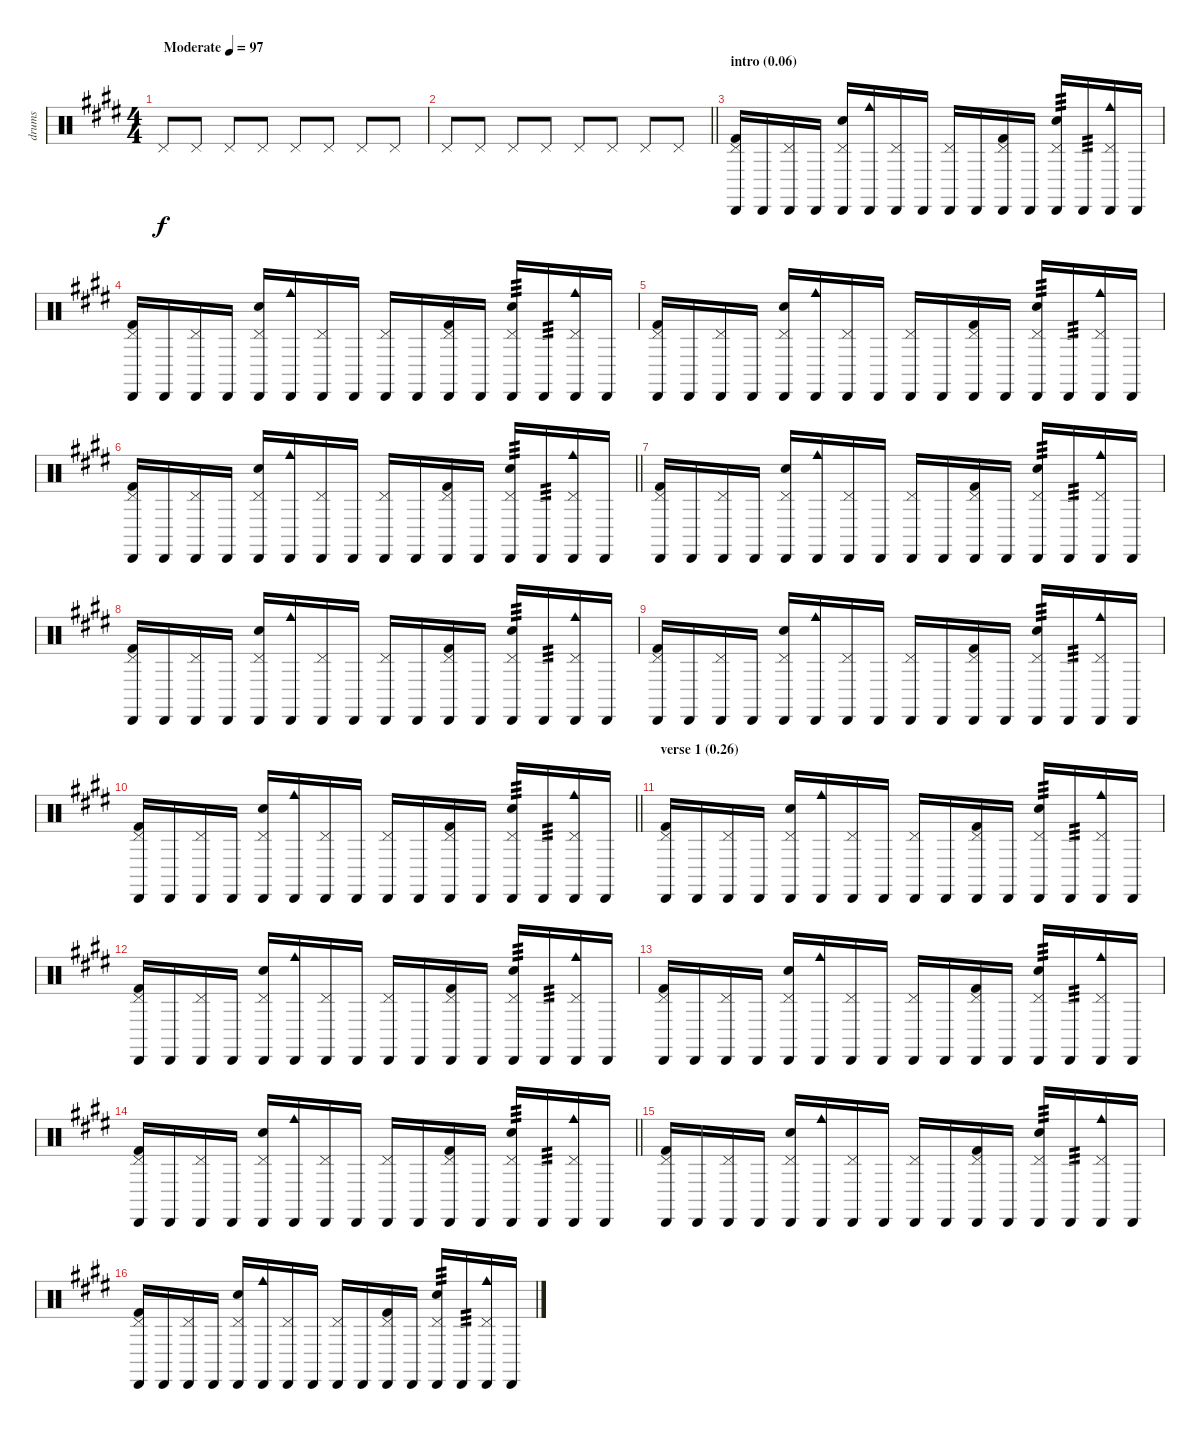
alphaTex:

\track ("drums" "drums") {instrument percussion}
\staff {score}
\articulation defaults
\ts (4 4)
\tempo (97 "Moderate")
\clef neutral
\ks e "Pedal Hi-Hat (hit)".8{dy f} "Pedal Hi-Hat (hit)".8 "Pedal Hi-Hat (hit)".8 "Pedal Hi-Hat (hit)".8 "Pedal Hi-Hat (hit)".8 "Pedal Hi-Hat (hit)".8 "Pedal Hi-Hat (hit)".8 "Pedal Hi-Hat (hit)".8
|
\barLineRight lightlight "Pedal Hi-Hat (hit)".8 "Pedal Hi-Hat (hit)".8 "Pedal Hi-Hat (hit)".8 "Pedal Hi-Hat (hit)".8 "Pedal Hi-Hat (hit)".8 "Pedal Hi-Hat (hit)".8 "Pedal Hi-Hat (hit)".8 "Pedal Hi-Hat (hit)".8
|
\section ("" "intro (0.06)")
("Pedal Hi-Hat (hit)" "Cabasa (hit)" "Kick (hit) 2").16 "Cabasa (hit)".16 ("Pedal Hi-Hat (hit)" "Cabasa (hit)").16 "Cabasa (hit)".16 ("Pedal Hi-Hat (hit)" "Cabasa (hit)" "Electric Snare (hit)").16 ("Cabasa (hit)" "Cowbell medium (hit)").16 ("Pedal Hi-Hat (hit)" "Cabasa (hit)").16 "Cabasa (hit)".16 ("Pedal Hi-Hat (hit)" "Cabasa (hit)").16 "Cabasa (hit)".16 ("Pedal Hi-Hat (hit)" "Cabasa (hit)" "Kick (hit) 2").16 "Cabasa (hit)".16 ("Pedal Hi-Hat (hit)" "Cabasa (hit)" "Electric Snare (hit)").16{tp 3} "Cabasa (hit)".16{tp 3} ("Pedal Hi-Hat (hit)" "Cabasa (hit)" "Cowbell medium (hit)").16 "Cabasa (hit)".16 |
("Pedal Hi-Hat (hit)" "Cabasa (hit)" "Kick (hit) 2").16 "Cabasa (hit)".16 ("Pedal Hi-Hat (hit)" "Cabasa (hit)").16 "Cabasa (hit)".16 ("Pedal Hi-Hat (hit)" "Cabasa (hit)" "Electric Snare (hit)").16 ("Cabasa (hit)" "Cowbell medium (hit)").16 ("Pedal Hi-Hat (hit)" "Cabasa (hit)").16 "Cabasa (hit)".16 ("Pedal Hi-Hat (hit)" "Cabasa (hit)").16 "Cabasa (hit)".16 ("Pedal Hi-Hat (hit)" "Cabasa (hit)" "Kick (hit) 2").16 "Cabasa (hit)".16 ("Pedal Hi-Hat (hit)" "Cabasa (hit)" "Electric Snare (hit)").16{tp 3} "Cabasa (hit)".16{tp 3} ("Pedal Hi-Hat (hit)" "Cabasa (hit)" "Cowbell medium (hit)").16 "Cabasa (hit)".16 |
("Pedal Hi-Hat (hit)" "Cabasa (hit)" "Kick (hit) 2").16 "Cabasa (hit)".16 ("Pedal Hi-Hat (hit)" "Cabasa (hit)").16 "Cabasa (hit)".16 ("Pedal Hi-Hat (hit)" "Cabasa (hit)" "Electric Snare (hit)").16 ("Cabasa (hit)" "Cowbell medium (hit)").16 ("Pedal Hi-Hat (hit)" "Cabasa (hit)").16 "Cabasa (hit)".16 ("Pedal Hi-Hat (hit)" "Cabasa (hit)").16 "Cabasa (hit)".16 ("Pedal Hi-Hat (hit)" "Cabasa (hit)" "Kick (hit) 2").16 "Cabasa (hit)".16 ("Pedal Hi-Hat (hit)" "Cabasa (hit)" "Electric Snare (hit)").16{tp 3} "Cabasa (hit)".16{tp 3} ("Pedal Hi-Hat (hit)" "Cabasa (hit)" "Cowbell medium (hit)").16 "Cabasa (hit)".16 |
\barLineRight lightlight
("Pedal Hi-Hat (hit)" "Cabasa (hit)" "Kick (hit) 2").16 "Cabasa (hit)".16 ("Pedal Hi-Hat (hit)" "Cabasa (hit)").16 "Cabasa (hit)".16 ("Pedal Hi-Hat (hit)" "Cabasa (hit)" "Electric Snare (hit)").16 ("Cabasa (hit)" "Cowbell medium (hit)").16 ("Pedal Hi-Hat (hit)" "Cabasa (hit)").16 "Cabasa (hit)".16 ("Pedal Hi-Hat (hit)" "Cabasa (hit)").16 "Cabasa (hit)".16 ("Pedal Hi-Hat (hit)" "Cabasa (hit)" "Kick (hit) 2").16 "Cabasa (hit)".16 ("Pedal Hi-Hat (hit)" "Cabasa (hit)" "Electric Snare (hit)").16{tp 3} "Cabasa (hit)".16{tp 3} ("Pedal Hi-Hat (hit)" "Cabasa (hit)" "Cowbell medium (hit)").16 "Cabasa (hit)".16 |
("Pedal Hi-Hat (hit)" "Cabasa (hit)" "Kick (hit) 2").16 "Cabasa (hit)".16 ("Pedal Hi-Hat (hit)" "Cabasa (hit)").16 "Cabasa (hit)".16 ("Pedal Hi-Hat (hit)" "Cabasa (hit)" "Electric Snare (hit)").16 ("Cabasa (hit)" "Cowbell medium (hit)").16 ("Pedal Hi-Hat (hit)" "Cabasa (hit)").16 "Cabasa (hit)".16 ("Pedal Hi-Hat (hit)" "Cabasa (hit)").16 "Cabasa (hit)".16 ("Pedal Hi-Hat (hit)" "Cabasa (hit)" "Kick (hit) 2").16 "Cabasa (hit)".16 ("Pedal Hi-Hat (hit)" "Cabasa (hit)" "Electric Snare (hit)").16{tp 3} "Cabasa (hit)".16{tp 3} ("Pedal Hi-Hat (hit)" "Cabasa (hit)" "Cowbell medium (hit)").16 "Cabasa (hit)".16 |
("Pedal Hi-Hat (hit)" "Cabasa (hit)" "Kick (hit) 2").16 "Cabasa (hit)".16 ("Pedal Hi-Hat (hit)" "Cabasa (hit)").16 "Cabasa (hit)".16 ("Pedal Hi-Hat (hit)" "Cabasa (hit)" "Electric Snare (hit)").16 ("Cabasa (hit)" "Cowbell medium (hit)").16 ("Pedal Hi-Hat (hit)" "Cabasa (hit)").16 "Cabasa (hit)".16 ("Pedal Hi-Hat (hit)" "Cabasa (hit)").16 "Cabasa (hit)".16 ("Pedal Hi-Hat (hit)" "Cabasa (hit)" "Kick (hit) 2").16 "Cabasa (hit)".16 ("Pedal Hi-Hat (hit)" "Cabasa (hit)" "Electric Snare (hit)").16{tp 3} "Cabasa (hit)".16{tp 3} ("Pedal Hi-Hat (hit)" "Cabasa (hit)" "Cowbell medium (hit)").16 "Cabasa (hit)".16 |
("Pedal Hi-Hat (hit)" "Cabasa (hit)" "Kick (hit) 2").16 "Cabasa (hit)".16 ("Pedal Hi-Hat (hit)" "Cabasa (hit)").16 "Cabasa (hit)".16 ("Pedal Hi-Hat (hit)" "Cabasa (hit)" "Electric Snare (hit)").16 ("Cabasa (hit)" "Cowbell medium (hit)").16 ("Pedal Hi-Hat (hit)" "Cabasa (hit)").16 "Cabasa (hit)".16 ("Pedal Hi-Hat (hit)" "Cabasa (hit)").16 "Cabasa (hit)".16 ("Pedal Hi-Hat (hit)" "Cabasa (hit)" "Kick (hit) 2").16 "Cabasa (hit)".16 ("Pedal Hi-Hat (hit)" "Cabasa (hit)" "Electric Snare (hit)").16{tp 3} "Cabasa (hit)".16{tp 3} ("Pedal Hi-Hat (hit)" "Cabasa (hit)" "Cowbell medium (hit)").16 "Cabasa (hit)".16 |
\barLineRight lightlight
("Pedal Hi-Hat (hit)" "Cabasa (hit)" "Kick (hit) 2").16 "Cabasa (hit)".16 ("Pedal Hi-Hat (hit)" "Cabasa (hit)").16 "Cabasa (hit)".16 ("Pedal Hi-Hat (hit)" "Cabasa (hit)" "Electric Snare (hit)").16 ("Cabasa (hit)" "Cowbell medium (hit)").16 ("Pedal Hi-Hat (hit)" "Cabasa (hit)").16 "Cabasa (hit)".16 ("Pedal Hi-Hat (hit)" "Cabasa (hit)").16 "Cabasa (hit)".16 ("Pedal Hi-Hat (hit)" "Cabasa (hit)" "Kick (hit) 2").16 "Cabasa (hit)".16 ("Pedal Hi-Hat (hit)" "Cabasa (hit)" "Electric Snare (hit)").16{tp 3} "Cabasa (hit)".16{tp 3} ("Pedal Hi-Hat (hit)" "Cabasa (hit)" "Cowbell medium (hit)").16 "Cabasa (hit)".16 |
\section ("" "verse 1 (0.26)")
("Pedal Hi-Hat (hit)" "Cabasa (hit)" "Kick (hit) 2").16 "Cabasa (hit)".16 ("Pedal Hi-Hat (hit)" "Cabasa (hit)").16 "Cabasa (hit)".16 ("Pedal Hi-Hat (hit)" "Cabasa (hit)" "Electric Snare (hit)").16 ("Cabasa (hit)" "Cowbell medium (hit)").16 ("Pedal Hi-Hat (hit)" "Cabasa (hit)").16 "Cabasa (hit)".16 ("Pedal Hi-Hat (hit)" "Cabasa (hit)").16 "Cabasa (hit)".16 ("Pedal Hi-Hat (hit)" "Cabasa (hit)" "Kick (hit) 2").16 "Cabasa (hit)".16 ("Pedal Hi-Hat (hit)" "Cabasa (hit)" "Electric Snare (hit)").16{tp 3} "Cabasa (hit)".16{tp 3} ("Pedal Hi-Hat (hit)" "Cabasa (hit)" "Cowbell medium (hit)").16 "Cabasa (hit)".16 |
("Pedal Hi-Hat (hit)" "Cabasa (hit)" "Kick (hit) 2").16 "Cabasa (hit)".16 ("Pedal Hi-Hat (hit)" "Cabasa (hit)").16 "Cabasa (hit)".16 ("Pedal Hi-Hat (hit)" "Cabasa (hit)" "Electric Snare (hit)").16 ("Cabasa (hit)" "Cowbell medium (hit)").16 ("Pedal Hi-Hat (hit)" "Cabasa (hit)").16 "Cabasa (hit)".16 ("Pedal Hi-Hat (hit)" "Cabasa (hit)").16 "Cabasa (hit)".16 ("Pedal Hi-Hat (hit)" "Cabasa (hit)" "Kick (hit) 2").16 "Cabasa (hit)".16 ("Pedal Hi-Hat (hit)" "Cabasa (hit)" "Electric Snare (hit)").16{tp 3} "Cabasa (hit)".16{tp 3} ("Pedal Hi-Hat (hit)" "Cabasa (hit)" "Cowbell medium (hit)").16 "Cabasa (hit)".16 |
("Pedal Hi-Hat (hit)" "Cabasa (hit)" "Kick (hit) 2").16 "Cabasa (hit)".16 ("Pedal Hi-Hat (hit)" "Cabasa (hit)").16 "Cabasa (hit)".16 ("Pedal Hi-Hat (hit)" "Cabasa (hit)" "Electric Snare (hit)").16 ("Cabasa (hit)" "Cowbell medium (hit)").16 ("Pedal Hi-Hat (hit)" "Cabasa (hit)").16 "Cabasa (hit)".16 ("Pedal Hi-Hat (hit)" "Cabasa (hit)").16 "Cabasa (hit)".16 ("Pedal Hi-Hat (hit)" "Cabasa (hit)" "Kick (hit) 2").16 "Cabasa (hit)".16 ("Pedal Hi-Hat (hit)" "Cabasa (hit)" "Electric Snare (hit)").16{tp 3} "Cabasa (hit)".16{tp 3} ("Pedal Hi-Hat (hit)" "Cabasa (hit)" "Cowbell medium (hit)").16 "Cabasa (hit)".16 |
\barLineRight lightlight
("Pedal Hi-Hat (hit)" "Cabasa (hit)" "Kick (hit) 2").16 "Cabasa (hit)".16 ("Pedal Hi-Hat (hit)" "Cabasa (hit)").16 "Cabasa (hit)".16 ("Pedal Hi-Hat (hit)" "Cabasa (hit)" "Electric Snare (hit)").16 ("Cabasa (hit)" "Cowbell medium (hit)").16 ("Pedal Hi-Hat (hit)" "Cabasa (hit)").16 "Cabasa (hit)".16 ("Pedal Hi-Hat (hit)" "Cabasa (hit)").16 "Cabasa (hit)".16 ("Pedal Hi-Hat (hit)" "Cabasa (hit)" "Kick (hit) 2").16 "Cabasa (hit)".16 ("Pedal Hi-Hat (hit)" "Cabasa (hit)" "Electric Snare (hit)").16{tp 3} "Cabasa (hit)".16{tp 3} ("Pedal Hi-Hat (hit)" "Cabasa (hit)" "Cowbell medium (hit)").16 "Cabasa (hit)".16 |
("Pedal Hi-Hat (hit)" "Cabasa (hit)" "Kick (hit) 2").16 "Cabasa (hit)".16 ("Pedal Hi-Hat (hit)" "Cabasa (hit)").16 "Cabasa (hit)".16 ("Pedal Hi-Hat (hit)" "Cabasa (hit)" "Electric Snare (hit)").16 ("Cabasa (hit)" "Cowbell medium (hit)").16 ("Pedal Hi-Hat (hit)" "Cabasa (hit)").16 "Cabasa (hit)".16 ("Pedal Hi-Hat (hit)" "Cabasa (hit)").16 "Cabasa (hit)".16 ("Pedal Hi-Hat (hit)" "Cabasa (hit)" "Kick (hit) 2").16 "Cabasa (hit)".16 ("Pedal Hi-Hat (hit)" "Cabasa (hit)" "Electric Snare (hit)").16{tp 3} "Cabasa (hit)".16{tp 3} ("Pedal Hi-Hat (hit)" "Cabasa (hit)" "Cowbell medium (hit)").16 "Cabasa (hit)".16 |
("Pedal Hi-Hat (hit)" "Cabasa (hit)" "Kick (hit) 2").16 "Cabasa (hit)".16 ("Pedal Hi-Hat (hit)" "Cabasa (hit)").16 "Cabasa (hit)".16 ("Pedal Hi-Hat (hit)" "Cabasa (hit)" "Electric Snare (hit)").16 ("Cabasa (hit)" "Cowbell medium (hit)").16 ("Pedal Hi-Hat (hit)" "Cabasa (hit)").16 "Cabasa (hit)".16 ("Pedal Hi-Hat (hit)" "Cabasa (hit)").16 "Cabasa (hit)".16 ("Pedal Hi-Hat (hit)" "Cabasa (hit)" "Kick (hit) 2").16 "Cabasa (hit)".16 ("Pedal Hi-Hat (hit)" "Cabasa (hit)" "Electric Snare (hit)").16{tp 3} "Cabasa (hit)".16{tp 3} ("Pedal Hi-Hat (hit)" "Cabasa (hit)" "Cowbell medium (hit)").16 "Cabasa (hit)".16
